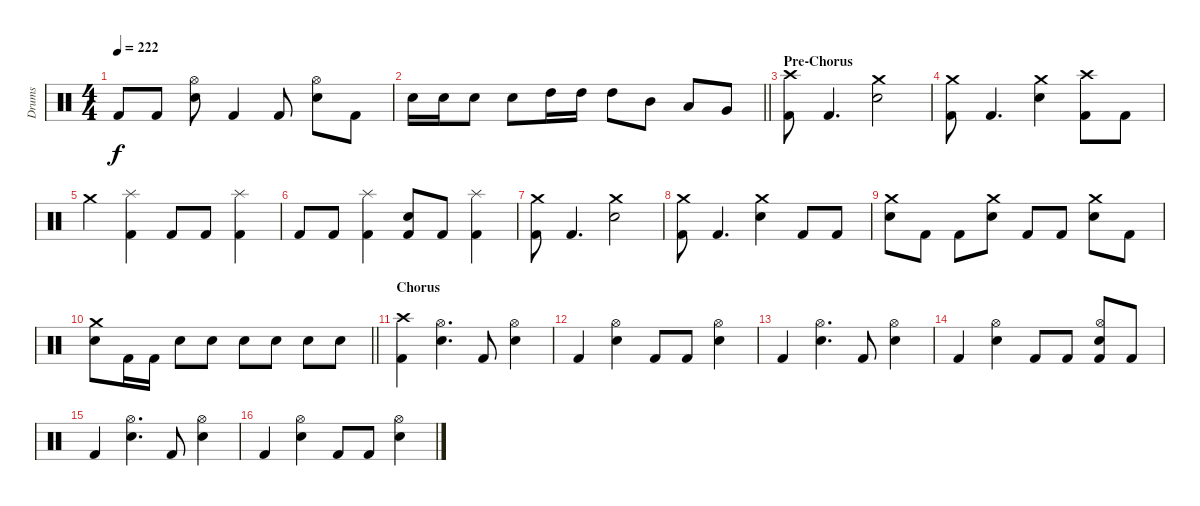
\track ("Drums" "Drums") {instrument percussion}
\staff {score}
\articulation defaults
\ts (4 4)
\tempo 222
\clef neutral
\ks c "Kick (hit) 2".8{dy f} "Kick (hit) 2".8
("Hi-Hat (open)" "Snare (hit) 2").8 "Kick (hit) 2".4 "Kick (hit) 2".8 ("Hi-Hat (open)" "Snare (hit) 2").8 "Kick (hit) 2".8 |
\barLineRight lightlight "Snare (hit) 2".16 "Snare (hit) 2".16 "Snare (hit) 2".8 "Snare (hit) 2".8 "High Tom (hit)".16 "High Tom (hit)".16 "High Tom (hit)".8 "Mid Tom (hit)".8 "Low Tom (hit)".8 "Very Low Tom (hit)".8
|
\section ("" "Pre-Chorus")
("Crash high (hit)" "Kick (hit) 2").8 "Kick (hit) 2".4{d} ("Crash medium (hit)" "Snare (hit) 2").2 |
("Crash medium (hit)" "Kick (hit) 2").8 "Kick (hit) 2".4{d} ("Crash medium (hit)" "Snare (hit) 2").4 ("Crash high (hit)" "Kick (hit) 2").8 "Kick (hit) 2".8 |
"Crash medium (hit)".4 ("Splash (hit)" "Kick (hit) 2").4 "Kick (hit) 2".8 "Kick (hit) 2".8 ("Splash (hit)" "Kick (hit) 2").4 |
"Kick (hit) 2".8 "Kick (hit) 2".8 ("Splash (hit)" "Kick (hit) 2").4 ("Snare (hit) 2" "Kick (hit) 2").8 "Kick (hit) 2".8 ("Splash (hit)" "Kick (hit) 2").4 |
("Crash medium (hit)" "Kick (hit) 2").8 "Kick (hit) 2".4{d} ("Crash medium (hit)" "Snare (hit) 2").2 |
("Crash medium (hit)" "Kick (hit) 2").8 "Kick (hit) 2".4{d} ("Crash medium (hit)" "Snare (hit) 2").4 "Kick (hit) 2".8 "Kick (hit) 2".8 |
("Crash medium (hit)" "Snare (hit) 2").8 "Kick (hit) 2".8 "Kick (hit) 2".8 ("Crash medium (hit)" "Snare (hit) 2").8 "Kick (hit) 2".8 "Kick (hit) 2".8 ("Crash medium (hit)" "Snare (hit) 2").8 "Kick (hit) 2".8 |
\barLineRight lightlight
("Crash medium (hit)" "Snare (hit) 2").8 "Kick (hit) 2".16 "Kick (hit) 2".16 "Snare (hit) 2".8 "Snare (hit) 2".8 "Snare (hit) 2".8 "Snare (hit) 2".8 "Snare (hit) 2".8 "Snare (hit) 2".8 |
\section ("" "Chorus")
("Crash high (hit)" "Kick (hit) 2").4 ("Hi-Hat (open)" "Snare (hit) 2").4{d} "Kick (hit) 2".8 ("Hi-Hat (open)" "Snare (hit) 2").4 |
"Kick (hit) 2".4 ("Hi-Hat (open)" "Snare (hit) 2").4 "Kick (hit) 2".8 "Kick (hit) 2".8 ("Hi-Hat (open)" "Snare (hit) 2").4 |
"Kick (hit) 2".4 ("Hi-Hat (open)" "Snare (hit) 2").4{d} "Kick (hit) 2".8 ("Hi-Hat (open)" "Snare (hit) 2").4 |
"Kick (hit) 2".4 ("Hi-Hat (open)" "Snare (hit) 2").4 "Kick (hit) 2".8 "Kick (hit) 2".8 ("Hi-Hat (open)" "Snare (hit) 2" "Kick (hit) 2").8 "Kick (hit) 2".8 |
"Kick (hit) 2".4 ("Hi-Hat (open)" "Snare (hit) 2").4{d} "Kick (hit) 2".8 ("Hi-Hat (open)" "Snare (hit) 2").4 |
"Kick (hit) 2".4 ("Hi-Hat (open)" "Snare (hit) 2").4 "Kick (hit) 2".8 "Kick (hit) 2".8 ("Hi-Hat (open)" "Snare (hit) 2").4
